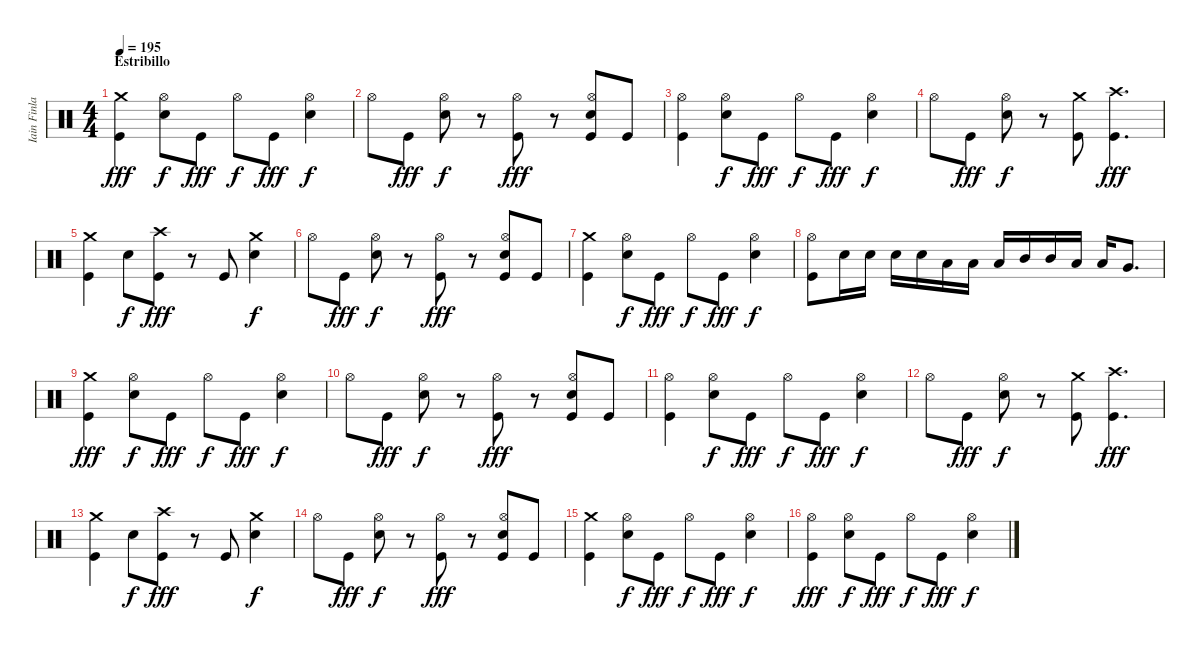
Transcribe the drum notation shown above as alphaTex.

\track ("Iain Finlay (Batería)" "Iain Finla") {instrument percussion}
\staff {score}
\articulation defaults
\ts (4 4)
\section ("" "Estribillo")
\tempo 195
\clef neutral
\ks c
("Crash medium (hit)" "Kick (hit)").4{dy fff} ("Hi-Hat (open)" "Electric Snare (hit)").8{dy f} "Kick (hit)".8{dy fff} "Hi-Hat (open)".8{dy f} "Kick (hit)".8{dy fff} ("Hi-Hat (open)" "Electric Snare (hit)").4{dy f} |
"Hi-Hat (open)".8 "Kick (hit)".8{dy fff} ("Hi-Hat (open)" "Electric Snare (hit)").8{dy f} r.8 ("Hi-Hat (open)" "Kick (hit)").8{dy fff} r.8 ("Hi-Hat (open)" "Electric Snare (hit)" "Kick (hit)").8 "Kick (hit)".8 |
("Hi-Hat (open)" "Kick (hit)").4 ("Hi-Hat (open)" "Electric Snare (hit)").8{dy f} "Kick (hit)".8{dy fff} "Hi-Hat (open)".8{dy f} "Kick (hit)".8{dy fff} ("Hi-Hat (open)" "Electric Snare (hit)").4{dy f} |
"Hi-Hat (open)".8 "Kick (hit)".8{dy fff} ("Hi-Hat (open)" "Electric Snare (hit)").8{dy f} r.8 ("Crash medium (hit)" "Kick (hit)").8 ("Crash high (hit)" "Kick (hit)").4{d dy fff} |
("Crash medium (hit)" "Kick (hit)").4 "Electric Snare (hit)".8{dy f} ("Crash high (hit)" "Kick (hit)").8{dy fff} r.8 "Kick (hit)".8 ("Crash medium (hit)" "Electric Snare (hit)").4{dy f} |
"Hi-Hat (open)".8 "Kick (hit)".8{dy fff} ("Hi-Hat (open)" "Electric Snare (hit)").8{dy f} r.8 ("Hi-Hat (open)" "Kick (hit)").8{dy fff} r.8 ("Hi-Hat (open)" "Electric Snare (hit)" "Kick (hit)").8 "Kick (hit)".8 |
("Crash medium (hit)" "Kick (hit)").4 ("Hi-Hat (open)" "Electric Snare (hit)").8{dy f} "Kick (hit)".8{dy fff} "Hi-Hat (open)".8{dy f} "Kick (hit)".8{dy fff} ("Hi-Hat (open)" "Electric Snare (hit)").4{dy f} |
("Hi-Hat (open)" "Kick (hit)").8 "Electric Snare (hit)".16 "Electric Snare (hit)".16 "Electric Snare (hit)".16 "Electric Snare (hit)".16 "Low Tom (hit)".16 "Low Tom (hit)".16 "Low Tom (hit)".16 "Mid Tom (hit)".16 "Mid Tom (hit)".16 "Low Tom (hit)".16 "Low Tom (hit)".16 "Very Low Tom (hit)".8{d} |
("Crash medium (hit)" "Kick (hit)").4{dy fff} ("Hi-Hat (open)" "Electric Snare (hit)").8{dy f} "Kick (hit)".8{dy fff} "Hi-Hat (open)".8{dy f} "Kick (hit)".8{dy fff} ("Hi-Hat (open)" "Electric Snare (hit)").4{dy f} |
"Hi-Hat (open)".8 "Kick (hit)".8{dy fff} ("Hi-Hat (open)" "Electric Snare (hit)").8{dy f} r.8 ("Hi-Hat (open)" "Kick (hit)").8{dy fff} r.8 ("Hi-Hat (open)" "Electric Snare (hit)" "Kick (hit)").8 "Kick (hit)".8 |
("Hi-Hat (open)" "Kick (hit)").4 ("Hi-Hat (open)" "Electric Snare (hit)").8{dy f} "Kick (hit)".8{dy fff} "Hi-Hat (open)".8{dy f} "Kick (hit)".8{dy fff} ("Hi-Hat (open)" "Electric Snare (hit)").4{dy f} |
"Hi-Hat (open)".8 "Kick (hit)".8{dy fff} ("Hi-Hat (open)" "Electric Snare (hit)").8{dy f} r.8 ("Crash medium (hit)" "Kick (hit)").8 ("Crash high (hit)" "Kick (hit)").4{d dy fff} |
("Crash medium (hit)" "Kick (hit)").4 "Electric Snare (hit)".8{dy f} ("Crash high (hit)" "Kick (hit)").8{dy fff} r.8 "Kick (hit)".8 ("Crash medium (hit)" "Electric Snare (hit)").4{dy f} |
"Hi-Hat (open)".8 "Kick (hit)".8{dy fff} ("Hi-Hat (open)" "Electric Snare (hit)").8{dy f} r.8 ("Hi-Hat (open)" "Kick (hit)").8{dy fff} r.8 ("Hi-Hat (open)" "Electric Snare (hit)" "Kick (hit)").8 "Kick (hit)".8 |
("Crash medium (hit)" "Kick (hit)").4 ("Hi-Hat (open)" "Electric Snare (hit)").8{dy f} "Kick (hit)".8{dy fff} "Hi-Hat (open)".8{dy f} "Kick (hit)".8{dy fff} ("Hi-Hat (open)" "Electric Snare (hit)").4{dy f} |
("Hi-Hat (open)" "Kick (hit)").4{dy fff} ("Hi-Hat (open)" "Electric Snare (hit)").8{dy f} "Kick (hit)".8{dy fff} "Hi-Hat (open)".8{dy f} "Kick (hit)".8{dy fff} ("Hi-Hat (open)" "Electric Snare (hit)").4{dy f}
